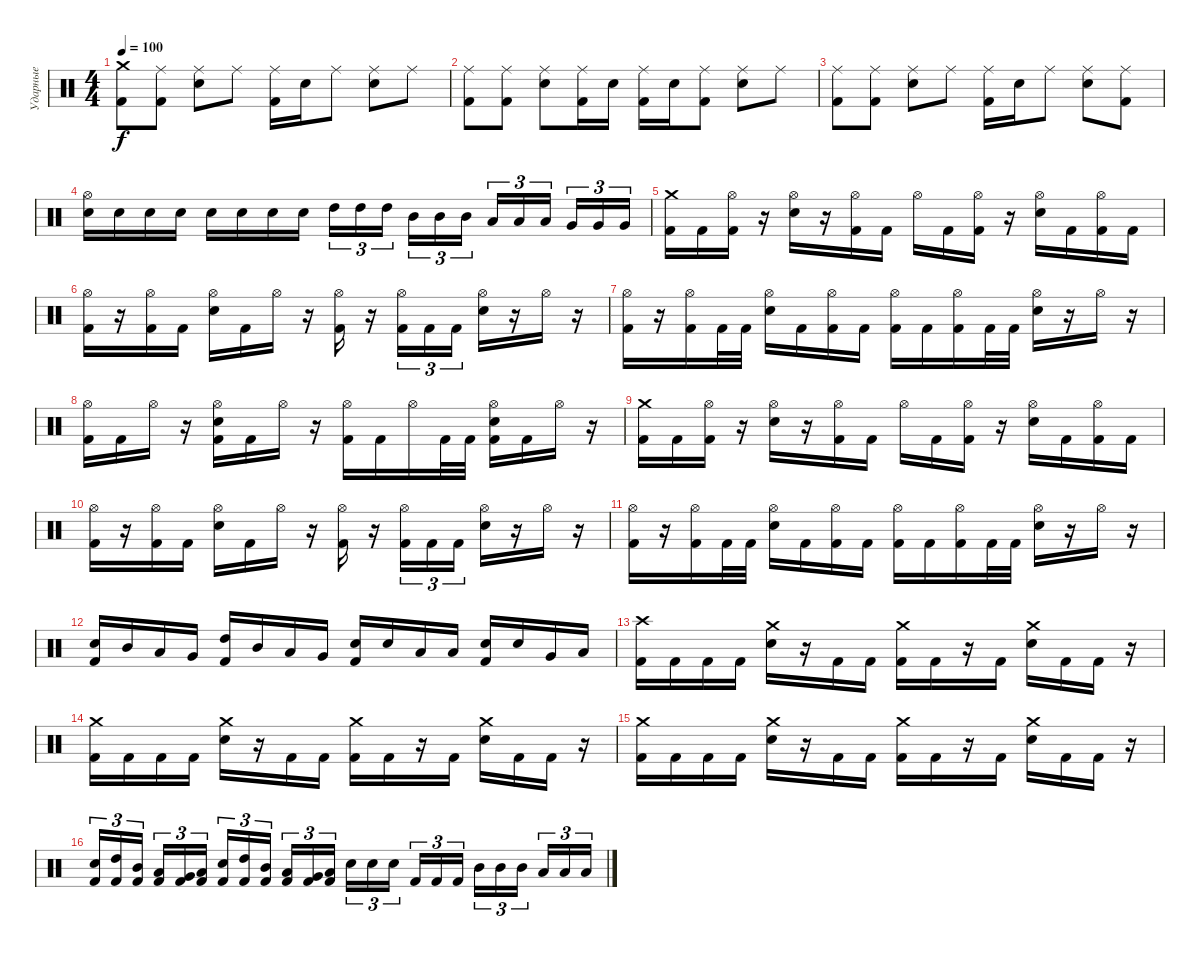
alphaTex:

\track ("Ударные" "Ударные") {instrument percussion}
\staff {score}
\articulation defaults
\ts (4 4)
\tempo 100
\clef neutral
\ks c
("Crash medium (hit)" "Kick (hit) 2").8{dy f} ("Ride (middle)" "Kick (hit) 2").8 ("Ride (middle)" "Electric Snare (hit)").8 "Ride (middle)".8 ("Ride (middle)" "Kick (hit) 2").16 "Electric Snare (hit)".16 "Ride (middle)".8 ("Ride (middle)" "Electric Snare (hit)").8 "Ride (middle)".8 |
("Ride (middle)" "Kick (hit) 2").8 ("Ride (middle)" "Kick (hit) 2").8 ("Ride (middle)" "Electric Snare (hit)").8 ("Ride (middle)" "Kick (hit) 2").16 "Electric Snare (hit)".16 ("Ride (middle)" "Kick (hit) 2").16 "Electric Snare (hit)".16 ("Ride (middle)" "Kick (hit) 2").8 ("Ride (middle)" "Electric Snare (hit)").8 "Ride (middle)".8 |
("Ride (middle)" "Kick (hit) 2").8 ("Ride (middle)" "Kick (hit) 2").8 ("Ride (middle)" "Electric Snare (hit)").8 "Ride (middle)".8 ("Ride (middle)" "Kick (hit) 2").16 "Electric Snare (hit)".16 "Ride (middle)".8 ("Ride (middle)" "Electric Snare (hit)").8 ("Ride (middle)" "Kick (hit) 2").8 |
("Hi-Hat (open)" "Electric Snare (hit)").16 "Electric Snare (hit)".16 "Electric Snare (hit)".16 "Electric Snare (hit)".16 "Electric Snare (hit)".16 "Electric Snare (hit)".16 "Electric Snare (hit)".16 "Electric Snare (hit)".16 "High Tom (hit)".16{tu (3 2)} "High Tom (hit)".16{tu (3 2)} "High Tom (hit)".16{tu (3 2) beam splitsecondary} "Mid Tom (hit)".16{tu (3 2)} "Mid Tom (hit)".16{tu (3 2)} "Mid Tom (hit)".16{tu (3 2)} "Low Tom (hit)".16{tu (3 2)} "Low Tom (hit)".16{tu (3 2)} "Low Tom (hit)".16{tu (3 2) beam splitsecondary} "Very Low Tom (hit)".16{tu (3 2)} "Very Low Tom (hit)".16{tu (3 2)} "Very Low Tom (hit)".16{tu (3 2)} |
("Crash medium (hit)" "Kick (hit) 2").16 "Kick (hit) 2".16 ("Hi-Hat (open)" "Kick (hit) 2").16 r.16 ("Hi-Hat (open)" "Electric Snare (hit)").16 r.16 ("Hi-Hat (open)" "Kick (hit) 2").16 "Kick (hit) 2".16 "Hi-Hat (open)".16 "Kick (hit) 2".16 ("Hi-Hat (open)" "Kick (hit) 2").16 r.16 ("Hi-Hat (open)" "Electric Snare (hit)").16 "Kick (hit) 2".16 ("Hi-Hat (open)" "Kick (hit) 2").16 "Kick (hit) 2".16 |
("Hi-Hat (open)" "Kick (hit) 2").16 r.16 ("Hi-Hat (open)" "Kick (hit) 2").16 "Kick (hit) 2".16 ("Hi-Hat (open)" "Electric Snare (hit)").16 "Kick (hit) 2".16 "Hi-Hat (open)".16 r.16 ("Hi-Hat (open)" "Kick (hit) 2").16 r.16 ("Hi-Hat (open)" "Kick (hit) 2").16{tu (3 2)} "Kick (hit) 2".16{tu (3 2)} "Kick (hit) 2".16{tu (3 2)} ("Hi-Hat (open)" "Electric Snare (hit)").16 r.16 "Hi-Hat (open)".16 r.16 |
("Hi-Hat (open)" "Kick (hit) 2").16 r.16 ("Hi-Hat (open)" "Kick (hit) 2").16 "Kick (hit) 2".32 "Kick (hit) 2".32 ("Hi-Hat (open)" "Electric Snare (hit)").16 "Kick (hit) 2".16 ("Hi-Hat (open)" "Kick (hit) 2").16 "Kick (hit) 2".16 ("Hi-Hat (open)" "Kick (hit) 2").16 "Kick (hit) 2".16 ("Hi-Hat (open)" "Kick (hit) 2").16 "Kick (hit) 2".32 "Kick (hit) 2".32 ("Hi-Hat (open)" "Electric Snare (hit)").16 r.16 "Hi-Hat (open)".16 r.16 |
("Hi-Hat (open)" "Kick (hit) 2").16 "Kick (hit) 2".16 "Hi-Hat (open)".16 r.16 ("Hi-Hat (open)" "Electric Snare (hit)" "Kick (hit) 2").16 "Kick (hit) 2".16 "Hi-Hat (open)".16 r.16 ("Hi-Hat (open)" "Kick (hit) 2").16 "Kick (hit) 2".16 "Hi-Hat (open)".16 "Kick (hit) 2".32 "Kick (hit) 2".32 ("Hi-Hat (open)" "Electric Snare (hit)" "Kick (hit) 2").16 "Kick (hit) 2".16 "Hi-Hat (open)".16 r.16 |
("Crash medium (hit)" "Kick (hit) 2").16 "Kick (hit) 2".16 ("Hi-Hat (open)" "Kick (hit) 2").16 r.16 ("Hi-Hat (open)" "Electric Snare (hit)").16 r.16 ("Hi-Hat (open)" "Kick (hit) 2").16 "Kick (hit) 2".16 "Hi-Hat (open)".16 "Kick (hit) 2".16 ("Hi-Hat (open)" "Kick (hit) 2").16 r.16 ("Hi-Hat (open)" "Electric Snare (hit)").16 "Kick (hit) 2".16 ("Hi-Hat (open)" "Kick (hit) 2").16 "Kick (hit) 2".16 |
("Hi-Hat (open)" "Kick (hit) 2").16 r.16 ("Hi-Hat (open)" "Kick (hit) 2").16 "Kick (hit) 2".16 ("Hi-Hat (open)" "Electric Snare (hit)").16 "Kick (hit) 2".16 "Hi-Hat (open)".16 r.16 ("Hi-Hat (open)" "Kick (hit) 2").16 r.16 ("Hi-Hat (open)" "Kick (hit) 2").16{tu (3 2)} "Kick (hit) 2".16{tu (3 2)} "Kick (hit) 2".16{tu (3 2)} ("Hi-Hat (open)" "Electric Snare (hit)").16 r.16 "Hi-Hat (open)".16 r.16 |
("Hi-Hat (open)" "Kick (hit) 2").16 r.16 ("Hi-Hat (open)" "Kick (hit) 2").16 "Kick (hit) 2".32 "Kick (hit) 2".32 ("Hi-Hat (open)" "Electric Snare (hit)").16 "Kick (hit) 2".16 ("Hi-Hat (open)" "Kick (hit) 2").16 "Kick (hit) 2".16 ("Hi-Hat (open)" "Kick (hit) 2").16 "Kick (hit) 2".16 ("Hi-Hat (open)" "Kick (hit) 2").16 "Kick (hit) 2".32 "Kick (hit) 2".32 ("Hi-Hat (open)" "Electric Snare (hit)").16 r.16 "Hi-Hat (open)".16 r.16 |
("Electric Snare (hit)" "Kick (hit) 2").16 "Mid Tom (hit)".16 "Low Tom (hit)".16 "Very Low Tom (hit)".16 ("High Tom (hit)" "Kick (hit) 2").16 "Mid Tom (hit)".16 "Low Tom (hit)".16 "Very Low Tom (hit)".16 ("Electric Snare (hit)" "Kick (hit) 2").16 "Electric Snare (hit)".16 "Low Tom (hit)".16 "Low Tom (hit)".16 ("Electric Snare (hit)" "Kick (hit) 2").16 "Electric Snare (hit)".16 "Very Low Tom (hit)".16 "Low Floor Tom (hit)".16 |
("Crash high (hit)" "Kick (hit) 2").16 "Kick (hit) 2".16 "Kick (hit) 2".16 "Kick (hit) 2".16 ("Crash medium (hit)" "Electric Snare (hit)").16 r.16 "Kick (hit) 2".16 "Kick (hit) 2".16 ("Crash medium (hit)" "Kick (hit) 2").16 "Kick (hit) 2".16 r.16 "Kick (hit) 2".16 ("Crash medium (hit)" "Electric Snare (hit)").16 "Kick (hit) 2".16 "Kick (hit) 2".16 r.16 |
("Crash medium (hit)" "Kick (hit) 2").16 "Kick (hit) 2".16 "Kick (hit) 2".16 "Kick (hit) 2".16 ("Crash medium (hit)" "Electric Snare (hit)").16 r.16 "Kick (hit) 2".16 "Kick (hit) 2".16 ("Crash medium (hit)" "Kick (hit) 2").16 "Kick (hit) 2".16 r.16 "Kick (hit) 2".16 ("Crash medium (hit)" "Electric Snare (hit)").16 "Kick (hit) 2".16 "Kick (hit) 2".16 r.16 |
("Crash medium (hit)" "Kick (hit) 2").16 "Kick (hit) 2".16 "Kick (hit) 2".16 "Kick (hit) 2".16 ("Crash medium (hit)" "Electric Snare (hit)").16 r.16 "Kick (hit) 2".16 "Kick (hit) 2".16 ("Crash medium (hit)" "Kick (hit) 2").16 "Kick (hit) 2".16 r.16 "Kick (hit) 2".16 ("Crash medium (hit)" "Electric Snare (hit)").16 "Kick (hit) 2".16 "Kick (hit) 2".16 r.16 |
("Electric Snare (hit)" "Kick (hit) 2").16{tu (3 2)} ("High Tom (hit)" "Kick (hit) 2").16{tu (3 2)} ("Mid Tom (hit)" "Kick (hit) 2").16{tu (3 2) beam splitsecondary} ("Low Tom (hit)" "Kick (hit) 2").16{tu (3 2)} ("Very Low Tom (hit)" "Kick (hit) 2").16{tu (3 2)} ("Low Floor Tom (hit)" "Kick (hit) 2").16{tu (3 2)} ("Electric Snare (hit)" "Kick (hit) 2").16{tu (3 2)} ("High Tom (hit)" "Kick (hit) 2").16{tu (3 2)} ("Mid Tom (hit)" "Kick (hit) 2").16{tu (3 2) beam splitsecondary} ("Low Tom (hit)" "Kick (hit) 2").16{tu (3 2)} ("Very Low Tom (hit)" "Kick (hit) 2").16{tu (3 2)} ("Low Floor Tom (hit)" "Kick (hit) 2").16{tu (3 2)} "Electric Snare (hit)".16{tu (3 2)} "Electric Snare (hit)".16{tu (3 2)} "Electric Snare (hit)".16{tu (3 2) beam splitsecondary} "Kick (hit) 2".16{tu (3 2)} "Kick (hit) 2".16{tu (3 2)} "Kick (hit) 2".16{tu (3 2)} "Mid Tom (hit)".16{tu (3 2)} "Mid Tom (hit)".16{tu (3 2)} "Mid Tom (hit)".16{tu (3 2) beam splitsecondary} "Low Tom (hit)".16{tu (3 2)} "Low Tom (hit)".16{tu (3 2)} "Low Tom (hit)".16{tu (3 2)}
